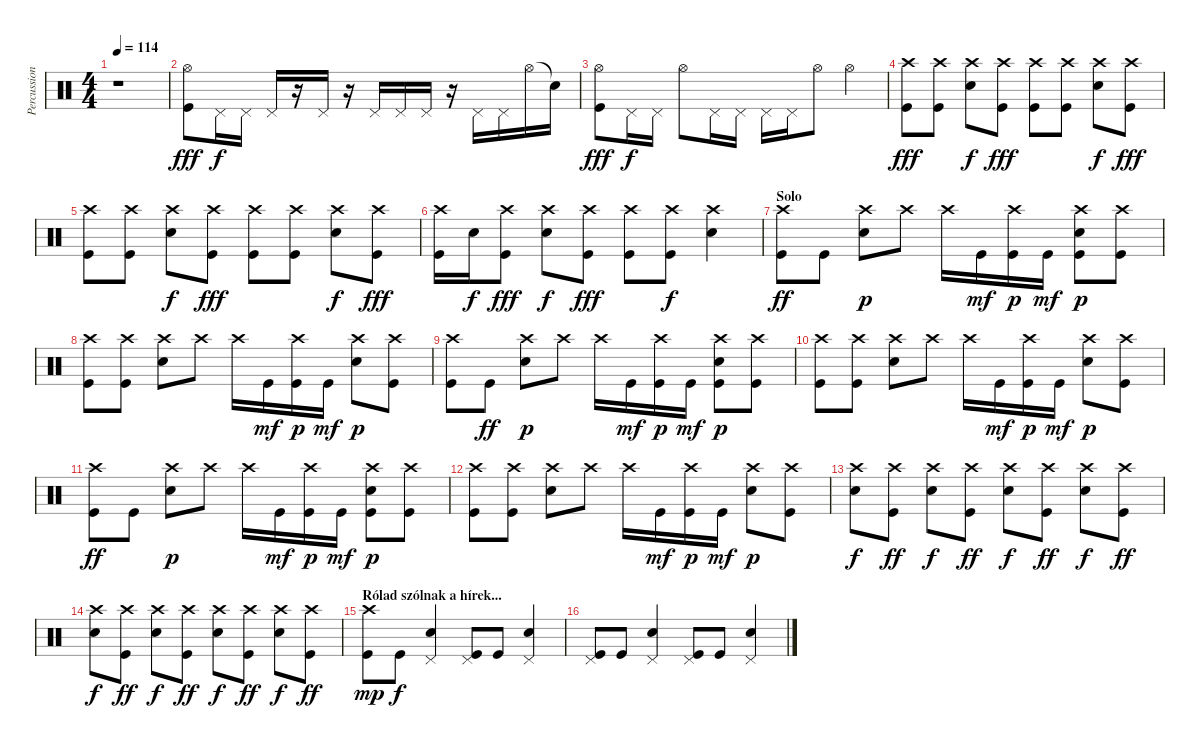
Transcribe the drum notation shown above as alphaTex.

\track ("Percussion" "Percussion") {instrument percussion}
\staff {score}
\articulation defaults
\ts (4 4)
\tempo 114
\clef neutral
\ks c
r.1{dy mp} |
("Kick (hit)" "Hi-Hat (open)").8{dy fff} "Pedal Hi-Hat (hit)".16{dy f} "Pedal Hi-Hat (hit)".16 "Pedal Hi-Hat (hit)".16 r.16 "Pedal Hi-Hat (hit)".16 r.16 "Pedal Hi-Hat (hit)".16 "Pedal Hi-Hat (hit)".16 "Pedal Hi-Hat (hit)".16 r.16 "Pedal Hi-Hat (hit)".16 "Pedal Hi-Hat (hit)".16 "Hi-Hat (open)".16 "Snare (hit)"{t}.16 |
("Kick (hit)" "Hi-Hat (open)").8{dy fff} "Pedal Hi-Hat (hit)".16{dy f} "Pedal Hi-Hat (hit)".16 "Hi-Hat (open)".8 "Pedal Hi-Hat (hit)".16 "Pedal Hi-Hat (hit)".16 "Pedal Hi-Hat (hit)".16 "Pedal Hi-Hat (hit)".16 "Hi-Hat (open)".8 "Hi-Hat (open)".4 |
("Kick (hit)" "Crash high (hit)").8{dy fff} ("Kick (hit)" "Crash high (hit)").8 ("Electric Snare (hit)" "Crash high (hit)").8{dy f} ("Kick (hit)" "Crash high (hit)").8{dy fff} ("Kick (hit)" "Crash high (hit)").8 ("Kick (hit)" "Crash high (hit)").8 ("Electric Snare (hit)" "Crash high (hit)").8{dy f} ("Kick (hit)" "Crash high (hit)").8{dy fff} |
("Kick (hit)" "Crash high (hit)").8 ("Kick (hit)" "Crash high (hit)").8 ("Electric Snare (hit)" "Crash high (hit)").8{dy f} ("Kick (hit)" "Crash high (hit)").8{dy fff} ("Kick (hit)" "Crash high (hit)").8 ("Kick (hit)" "Crash high (hit)").8 ("Electric Snare (hit)" "Crash high (hit)").8{dy f} ("Kick (hit)" "Crash high (hit)").8{dy fff} |
("Kick (hit)" "Crash high (hit)").16 "Electric Snare (hit)".16{dy f} ("Kick (hit)" "Crash high (hit)").8{dy fff} ("Electric Snare (hit)" "Crash high (hit)").8{dy f} ("Kick (hit)" "Crash high (hit)").8{dy fff} ("Kick (hit)" "Crash high (hit)").8 ("Kick (hit)" "Crash high (hit)").8{dy f} ("Electric Snare (hit)" "Crash high (hit)").4 |
\section ("" "Solo")
("Kick (hit)" "Crash high (hit)").8{dy ff} "Kick (hit)".8 ("Electric Snare (hit)" "Crash high (hit)").8{dy p} "Crash high (hit)".8 "Crash high (hit)".16 "Kick (hit)".16{dy mf} ("Kick (hit)" "Crash high (hit)").16{dy p} "Kick (hit)".16{dy mf} ("Electric Snare (hit)" "Kick (hit)" "Crash high (hit)").8{dy p} ("Kick (hit)" "Crash high (hit)").8 |
("Kick (hit)" "Crash high (hit)").8 ("Kick (hit)" "Crash high (hit)").8 ("Electric Snare (hit)" "Crash high (hit)").8 "Crash high (hit)".8 "Crash high (hit)".16 "Kick (hit)".16{dy mf} ("Kick (hit)" "Crash high (hit)").16{dy p} "Kick (hit)".16{dy mf} ("Electric Snare (hit)" "Crash high (hit)").8{dy p} ("Kick (hit)" "Crash high (hit)").8 |
("Kick (hit)" "Crash high (hit)").8 "Kick (hit)".8{dy ff} ("Electric Snare (hit)" "Crash high (hit)").8{dy p} "Crash high (hit)".8 "Crash high (hit)".16 "Kick (hit)".16{dy mf} ("Kick (hit)" "Crash high (hit)").16{dy p} "Kick (hit)".16{dy mf} ("Electric Snare (hit)" "Kick (hit)" "Crash high (hit)").8{dy p} ("Kick (hit)" "Crash high (hit)").8 |
("Kick (hit)" "Crash high (hit)").8 ("Kick (hit)" "Crash high (hit)").8 ("Electric Snare (hit)" "Crash high (hit)").8 "Crash high (hit)".8 "Crash high (hit)".16 "Kick (hit)".16{dy mf} ("Kick (hit)" "Crash high (hit)").16{dy p} "Kick (hit)".16{dy mf} ("Electric Snare (hit)" "Crash high (hit)").8{dy p} ("Kick (hit)" "Crash high (hit)").8 |
("Kick (hit)" "Crash high (hit)").8{dy ff} "Kick (hit)".8 ("Electric Snare (hit)" "Crash high (hit)").8{dy p} "Crash high (hit)".8 "Crash high (hit)".16 "Kick (hit)".16{dy mf} ("Kick (hit)" "Crash high (hit)").16{dy p} "Kick (hit)".16{dy mf} ("Electric Snare (hit)" "Kick (hit)" "Crash high (hit)").8{dy p} ("Kick (hit)" "Crash high (hit)").8 |
("Kick (hit)" "Crash high (hit)").8 ("Kick (hit)" "Crash high (hit)").8 ("Electric Snare (hit)" "Crash high (hit)").8 "Crash high (hit)".8 "Crash high (hit)".16 "Kick (hit)".16{dy mf} ("Kick (hit)" "Crash high (hit)").16{dy p} "Kick (hit)".16{dy mf} ("Electric Snare (hit)" "Crash high (hit)").8{dy p} ("Kick (hit)" "Crash high (hit)").8 |
("Electric Snare (hit)" "Crash high (hit)").8{dy f} ("Kick (hit)" "Crash high (hit)").8{dy ff} ("Electric Snare (hit)" "Crash high (hit)").8{dy f} ("Kick (hit)" "Crash high (hit)").8{dy ff} ("Electric Snare (hit)" "Crash high (hit)").8{dy f} ("Kick (hit)" "Crash high (hit)").8{dy ff} ("Electric Snare (hit)" "Crash high (hit)").8{dy f} ("Kick (hit)" "Crash high (hit)").8{dy ff} |
("Electric Snare (hit)" "Crash high (hit)").8{dy f} ("Kick (hit)" "Crash high (hit)").8{dy ff} ("Electric Snare (hit)" "Crash high (hit)").8{dy f} ("Kick (hit)" "Crash high (hit)").8{dy ff} ("Electric Snare (hit)" "Crash high (hit)").8{dy f} ("Kick (hit)" "Crash high (hit)").8{dy ff} ("Electric Snare (hit)" "Crash high (hit)").8{dy f} ("Kick (hit)" "Crash high (hit)").8{dy ff} |
\section ("" "Rólad szólnak a hírek...")
("Kick (hit)" "Crash high (hit)").8{dy mp} "Kick (hit)".8{dy f} ("Electric Snare (hit)" "Pedal Hi-Hat (hit)").4 ("Kick (hit)" "Pedal Hi-Hat (hit)").8 "Kick (hit)".8 ("Electric Snare (hit)" "Pedal Hi-Hat (hit)").4 |
("Kick (hit)" "Pedal Hi-Hat (hit)").8 "Kick (hit)".8 ("Electric Snare (hit)" "Pedal Hi-Hat (hit)").4 ("Kick (hit)" "Pedal Hi-Hat (hit)").8 "Kick (hit)".8 ("Electric Snare (hit)" "Pedal Hi-Hat (hit)").4
